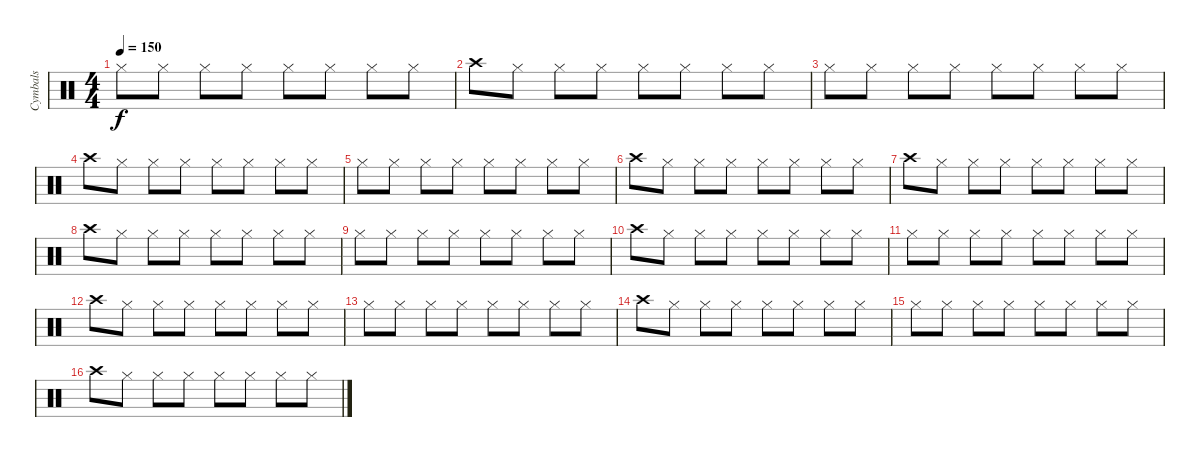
\track ("Cymbals" "Cymbals") {instrument percussion}
\staff {score}
\articulation defaults
\ts (4 4)
\tempo 150
\clef neutral
\ks c "Hi-Hat (closed)".8{dy f} "Hi-Hat (closed)".8 "Hi-Hat (closed)".8 "Hi-Hat (closed)".8 "Hi-Hat (closed)".8 "Hi-Hat (closed)".8 "Hi-Hat (closed)".8 "Hi-Hat (closed)".8
|
"Crash high (hit)".8 "Hi-Hat (closed)".8 "Hi-Hat (closed)".8 "Hi-Hat (closed)".8 "Hi-Hat (closed)".8 "Hi-Hat (closed)".8 "Hi-Hat (closed)".8 "Hi-Hat (closed)".8 |
"Hi-Hat (closed)".8 "Hi-Hat (closed)".8 "Hi-Hat (closed)".8 "Hi-Hat (closed)".8 "Hi-Hat (closed)".8 "Hi-Hat (closed)".8 "Hi-Hat (closed)".8 "Hi-Hat (closed)".8 |
"Crash high (hit)".8 "Hi-Hat (closed)".8 "Hi-Hat (closed)".8 "Hi-Hat (closed)".8 "Hi-Hat (closed)".8 "Hi-Hat (closed)".8 "Hi-Hat (closed)".8 "Hi-Hat (closed)".8 |
"Hi-Hat (closed)".8 "Hi-Hat (closed)".8 "Hi-Hat (closed)".8 "Hi-Hat (closed)".8 "Hi-Hat (closed)".8 "Hi-Hat (closed)".8 "Hi-Hat (closed)".8 "Hi-Hat (closed)".8 |
"Crash high (hit)".8 "Hi-Hat (closed)".8 "Hi-Hat (closed)".8 "Hi-Hat (closed)".8 "Hi-Hat (closed)".8 "Hi-Hat (closed)".8 "Hi-Hat (closed)".8 "Hi-Hat (closed)".8 |
"Crash high (hit)".8 "Hi-Hat (closed)".8 "Hi-Hat (closed)".8 "Hi-Hat (closed)".8 "Hi-Hat (closed)".8 "Hi-Hat (closed)".8 "Hi-Hat (closed)".8 "Hi-Hat (closed)".8 |
"Crash high (hit)".8 "Hi-Hat (closed)".8 "Hi-Hat (closed)".8 "Hi-Hat (closed)".8 "Hi-Hat (closed)".8 "Hi-Hat (closed)".8 "Hi-Hat (closed)".8 "Hi-Hat (closed)".8 |
"Hi-Hat (closed)".8 "Hi-Hat (closed)".8 "Hi-Hat (closed)".8 "Hi-Hat (closed)".8 "Hi-Hat (closed)".8 "Hi-Hat (closed)".8 "Hi-Hat (closed)".8 "Hi-Hat (closed)".8 |
"Crash high (hit)".8 "Hi-Hat (closed)".8 "Hi-Hat (closed)".8 "Hi-Hat (closed)".8 "Hi-Hat (closed)".8 "Hi-Hat (closed)".8 "Hi-Hat (closed)".8 "Hi-Hat (closed)".8 |
"Hi-Hat (closed)".8 "Hi-Hat (closed)".8 "Hi-Hat (closed)".8 "Hi-Hat (closed)".8 "Hi-Hat (closed)".8 "Hi-Hat (closed)".8 "Hi-Hat (closed)".8 "Hi-Hat (closed)".8 |
"Crash high (hit)".8 "Hi-Hat (closed)".8 "Hi-Hat (closed)".8 "Hi-Hat (closed)".8 "Hi-Hat (closed)".8 "Hi-Hat (closed)".8 "Hi-Hat (closed)".8 "Hi-Hat (closed)".8 |
"Hi-Hat (closed)".8 "Hi-Hat (closed)".8 "Hi-Hat (closed)".8 "Hi-Hat (closed)".8 "Hi-Hat (closed)".8 "Hi-Hat (closed)".8 "Hi-Hat (closed)".8 "Hi-Hat (closed)".8 |
"Crash high (hit)".8 "Hi-Hat (closed)".8 "Hi-Hat (closed)".8 "Hi-Hat (closed)".8 "Hi-Hat (closed)".8 "Hi-Hat (closed)".8 "Hi-Hat (closed)".8 "Hi-Hat (closed)".8 |
"Hi-Hat (closed)".8 "Hi-Hat (closed)".8 "Hi-Hat (closed)".8 "Hi-Hat (closed)".8 "Hi-Hat (closed)".8 "Hi-Hat (closed)".8 "Hi-Hat (closed)".8 "Hi-Hat (closed)".8 |
"Crash high (hit)".8 "Hi-Hat (closed)".8 "Hi-Hat (closed)".8 "Hi-Hat (closed)".8 "Hi-Hat (closed)".8 "Hi-Hat (closed)".8 "Hi-Hat (closed)".8 "Hi-Hat (closed)".8
